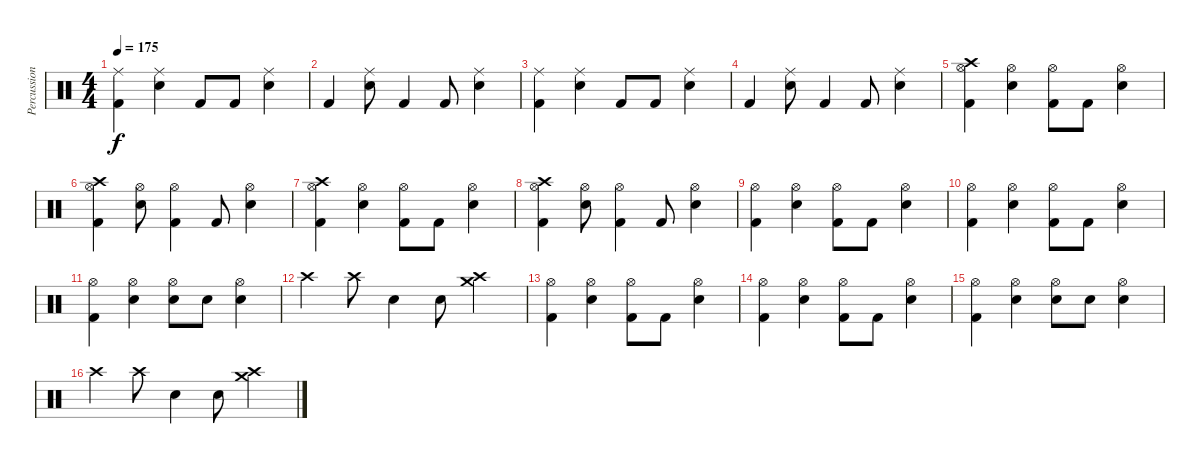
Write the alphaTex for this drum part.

\track ("Percussion" "Percussion") {instrument percussion}
\staff {score}
\articulation defaults
\ts (4 4)
\tempo 175
\clef neutral
\ks c
("Ride (middle)" "Kick (hit) 2").4{dy f} ("Ride (middle)" "Snare (hit) 2").4 "Kick (hit) 2".8 "Kick (hit) 2".8 ("Ride (middle)" "Snare (hit) 2").4 |
"Kick (hit) 2".4 ("Ride (middle)" "Snare (hit) 2").8 "Kick (hit) 2".4 "Kick (hit) 2".8 ("Ride (middle)" "Snare (hit) 2").4 |
("Ride (middle)" "Kick (hit) 2").4 ("Ride (middle)" "Snare (hit) 2").4 "Kick (hit) 2".8 "Kick (hit) 2".8 ("Ride (middle)" "Snare (hit) 2").4 |
"Kick (hit) 2".4 ("Ride (middle)" "Snare (hit) 2").8 "Kick (hit) 2".4 "Kick (hit) 2".8 ("Ride (middle)" "Snare (hit) 2").4 |
("Hi-Hat (open)" "Crash high (hit)" "Kick (hit) 2").4 ("Hi-Hat (open)" "Snare (hit) 2").4 ("Hi-Hat (open)" "Kick (hit) 2").8 "Kick (hit) 2".8 ("Hi-Hat (open)" "Snare (hit) 2").4 |
("Hi-Hat (open)" "Crash high (hit)" "Kick (hit) 2").4 ("Hi-Hat (open)" "Snare (hit) 2").8 ("Hi-Hat (open)" "Kick (hit) 2").4 "Kick (hit) 2".8 ("Hi-Hat (open)" "Snare (hit) 2").4 |
("Hi-Hat (open)" "Crash high (hit)" "Kick (hit) 2").4 ("Hi-Hat (open)" "Snare (hit) 2").4 ("Hi-Hat (open)" "Kick (hit) 2").8 "Kick (hit) 2".8 ("Hi-Hat (open)" "Snare (hit) 2").4 |
("Hi-Hat (open)" "Crash high (hit)" "Kick (hit) 2").4 ("Hi-Hat (open)" "Snare (hit) 2").8 ("Hi-Hat (open)" "Kick (hit) 2").4 "Kick (hit) 2".8 ("Hi-Hat (open)" "Snare (hit) 2").4 |
("Hi-Hat (open)" "Kick (hit) 2").4 ("Hi-Hat (open)" "Snare (hit) 2").4 ("Hi-Hat (open)" "Kick (hit) 2").8 "Kick (hit) 2".8 ("Hi-Hat (open)" "Snare (hit) 2").4 |
("Hi-Hat (open)" "Kick (hit) 2").4 ("Hi-Hat (open)" "Snare (hit) 2").4 ("Hi-Hat (open)" "Kick (hit) 2").8 "Kick (hit) 2".8 ("Hi-Hat (open)" "Snare (hit) 2").4 |
("Hi-Hat (open)" "Kick (hit) 2").4 ("Hi-Hat (open)" "Snare (hit) 2").4 ("Hi-Hat (open)" "Snare (hit) 2").8 "Snare (hit) 2".8 ("Hi-Hat (open)" "Snare (hit) 2").4 |
"Crash high (hit)".4 "Crash high (hit)".8 "Snare (hit) 2".4 "Snare (hit) 2".8 ("Crash high (hit)" "Crash medium (hit)").4 |
("Hi-Hat (open)" "Kick (hit) 2").4 ("Hi-Hat (open)" "Snare (hit) 2").4 ("Hi-Hat (open)" "Kick (hit) 2").8 "Kick (hit) 2".8 ("Hi-Hat (open)" "Snare (hit) 2").4 |
("Hi-Hat (open)" "Kick (hit) 2").4 ("Hi-Hat (open)" "Snare (hit) 2").4 ("Hi-Hat (open)" "Kick (hit) 2").8 "Kick (hit) 2".8 ("Hi-Hat (open)" "Snare (hit) 2").4 |
("Hi-Hat (open)" "Kick (hit) 2").4 ("Hi-Hat (open)" "Snare (hit) 2").4 ("Hi-Hat (open)" "Snare (hit) 2").8 "Snare (hit) 2".8 ("Hi-Hat (open)" "Snare (hit) 2").4 |
"Crash high (hit)".4 "Crash high (hit)".8 "Snare (hit) 2".4 "Snare (hit) 2".8 ("Crash high (hit)" "Crash medium (hit)").4
